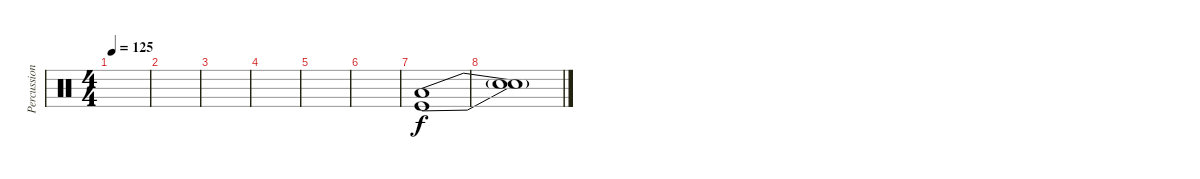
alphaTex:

\track ("Percussions" "Percussion") {instrument percussion}
\staff {score}
\articulation defaults
\ts (4 4)
\tempo 125
\clef neutral
\ks c
|
|
|
|
|
|
("Kick (hit)"{be (custom 0 4 20 4 40 0 60 0)} "Low Floor Tom (hit)"{be (custom 0 4 20 4 40 0 60 0)}).1 |
("Snare (hit)"{t} "Snare (hit)"{t}).1
